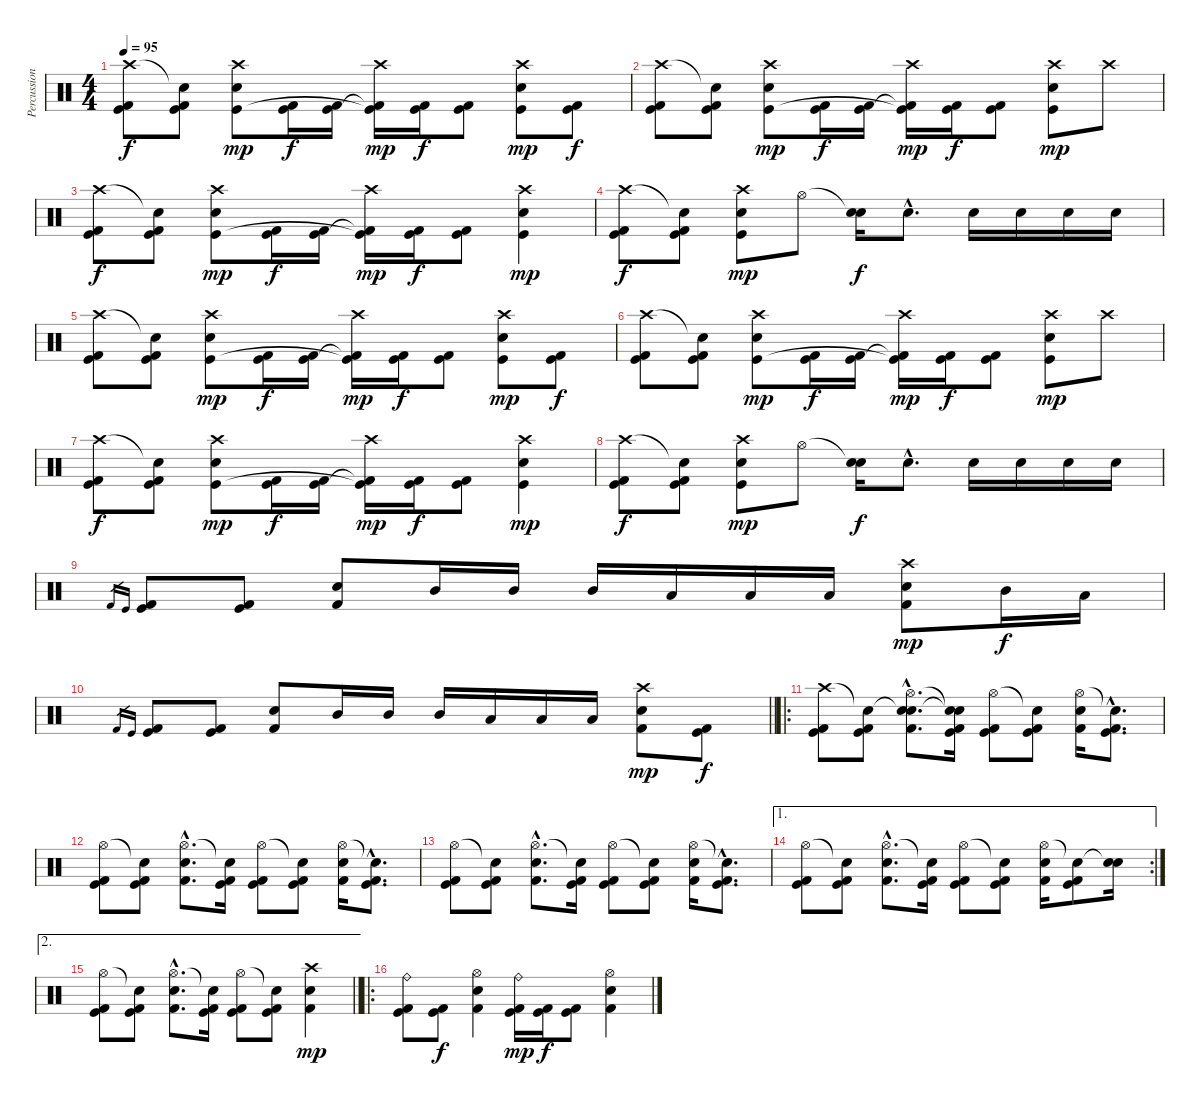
\track ("Percussion" "Percussion") {instrument percussion}
\staff {score}
\articulation defaults
\ts (4 4)
\tempo 95
\clef neutral
\ks c
("Crash high (hit)" "Kick (hit) 2" "Kick (hit)").8{dy f} ("Snare (hit)"{t} "Kick (hit) 2" "Kick (hit)").8 ("Crash high (hit)" "Snare (hit) 2" "Kick (hit)").8{dy mp} ("Kick (hit) 2" "Kick (hit)").16{dy f} ("Kick (hit) 2" "Kick (hit)").16 ("Crash high (hit)" "Kick (hit) 2"{t} "Kick (hit)"{t}).16{dy mp} ("Kick (hit) 2" "Kick (hit)").16{dy f} ("Kick (hit)" "Kick (hit) 2").8 ("Crash high (hit)" "Snare (hit) 2" "Kick (hit)").8{dy mp} ("Kick (hit)" "Kick (hit) 2").8{dy f} |
("Crash high (hit)" "Kick (hit) 2" "Kick (hit)").8 ("Snare (hit)"{t} "Kick (hit) 2" "Kick (hit)").8 ("Crash high (hit)" "Snare (hit) 2" "Kick (hit)").8{dy mp} ("Kick (hit) 2" "Kick (hit)").16{dy f} ("Kick (hit) 2" "Kick (hit)").16 ("Crash high (hit)" "Kick (hit) 2"{t} "Kick (hit)"{t}).16{dy mp} ("Kick (hit) 2" "Kick (hit)").16{dy f} ("Kick (hit)" "Kick (hit) 2").8 ("Crash high (hit)" "Snare (hit) 2" "Kick (hit)").8{dy mp} "Crash high (hit)".8 |
("Crash high (hit)" "Kick (hit) 2" "Kick (hit)").8{dy f} ("Snare (hit)"{t} "Kick (hit) 2" "Kick (hit)").8 ("Crash high (hit)" "Snare (hit) 2" "Kick (hit)").8{dy mp} ("Kick (hit) 2" "Kick (hit)").16{dy f} ("Kick (hit) 2" "Kick (hit)").16 ("Crash high (hit)" "Kick (hit) 2"{t} "Kick (hit)"{t}).16{dy mp} ("Kick (hit) 2" "Kick (hit)").16{dy f} ("Kick (hit)" "Kick (hit) 2").8 ("Crash high (hit)" "Snare (hit) 2" "Kick (hit)").4{dy mp} |
("Crash high (hit)" "Kick (hit) 2" "Kick (hit)").8{dy f} ("Snare (hit)"{t} "Kick (hit) 2" "Kick (hit)").8 ("Crash high (hit)" "Snare (hit) 2" "Kick (hit)").8{dy mp} "Hi-Hat (open)".8 ("Snare (hit)"{t} "Snare (hit) 2").16{dy f} "Snare (hit) 2"{hac}.8{d} "Snare (hit) 2".16 "Snare (hit) 2".16 "Snare (hit) 2".16 "Snare (hit) 2".16 |
("Crash high (hit)" "Kick (hit) 2" "Kick (hit)").8 ("Snare (hit)"{t} "Kick (hit) 2" "Kick (hit)").8 ("Crash high (hit)" "Snare (hit) 2" "Kick (hit)").8{dy mp} ("Kick (hit) 2" "Kick (hit)").16{dy f} ("Kick (hit) 2" "Kick (hit)").16 ("Crash high (hit)" "Kick (hit) 2"{t} "Kick (hit)"{t}).16{dy mp} ("Kick (hit) 2" "Kick (hit)").16{dy f} ("Kick (hit)" "Kick (hit) 2").8 ("Crash high (hit)" "Snare (hit) 2" "Kick (hit)").8{dy mp} ("Kick (hit)" "Kick (hit) 2").8{dy f} |
("Crash high (hit)" "Kick (hit) 2" "Kick (hit)").8 ("Snare (hit)"{t} "Kick (hit) 2" "Kick (hit)").8 ("Crash high (hit)" "Snare (hit) 2" "Kick (hit)").8{dy mp} ("Kick (hit) 2" "Kick (hit)").16{dy f} ("Kick (hit) 2" "Kick (hit)").16 ("Crash high (hit)" "Kick (hit) 2"{t} "Kick (hit)"{t}).16{dy mp} ("Kick (hit) 2" "Kick (hit)").16{dy f} ("Kick (hit)" "Kick (hit) 2").8 ("Crash high (hit)" "Snare (hit) 2" "Kick (hit)").8{dy mp} "Crash high (hit)".8 |
("Crash high (hit)" "Kick (hit) 2" "Kick (hit)").8{dy f} ("Snare (hit)"{t} "Kick (hit) 2" "Kick (hit)").8 ("Crash high (hit)" "Snare (hit) 2" "Kick (hit)").8{dy mp} ("Kick (hit) 2" "Kick (hit)").16{dy f} ("Kick (hit) 2" "Kick (hit)").16 ("Crash high (hit)" "Kick (hit) 2"{t} "Kick (hit)"{t}).16{dy mp} ("Kick (hit) 2" "Kick (hit)").16{dy f} ("Kick (hit)" "Kick (hit) 2").8 ("Crash high (hit)" "Snare (hit) 2" "Kick (hit)").4{dy mp} |
("Crash high (hit)" "Kick (hit) 2" "Kick (hit)").8{dy f} ("Snare (hit)"{t} "Kick (hit) 2" "Kick (hit)").8 ("Crash high (hit)" "Snare (hit) 2" "Kick (hit)").8{dy mp} "Hi-Hat (open)".8 ("Snare (hit)"{t} "Snare (hit) 2").16{dy f} "Snare (hit) 2"{hac}.8{d} "Snare (hit) 2".16 "Snare (hit) 2".16 "Snare (hit) 2".16 "Snare (hit) 2".16 |
"Kick (hit) 2".16{gr} "Kick (hit)".16{gr} ("Kick (hit) 2" "Kick (hit)").8 ("Kick (hit) 2" "Kick (hit)").8 ("Snare (hit) 2" "Kick (hit) 2").8 "Mid Tom (hit)".16 "Mid Tom (hit)".16 "Mid Tom (hit)".16 "Low Tom (hit)".16 "Low Tom (hit)".16 "Low Tom (hit)".16 ("Crash high (hit)" "Snare (hit) 2" "Kick (hit) 2").8{dy mp} "Mid Tom (hit)".16{dy f} "Low Tom (hit)".16 |
\barLineRight lightlight "Kick (hit) 2".16{gr} "Kick (hit)".16{gr}
("Kick (hit) 2" "Kick (hit)").8 ("Kick (hit) 2" "Kick (hit)").8 ("Snare (hit) 2" "Kick (hit) 2").8 "Mid Tom (hit)".16 "Mid Tom (hit)".16 "Mid Tom (hit)".16 "Low Tom (hit)".16 "Low Tom (hit)".16 "Low Tom (hit)".16 ("Crash high (hit)" "Snare (hit) 2" "Kick (hit) 2").8{dy mp} ("Kick (hit)" "Kick (hit) 2").8{dy f} |
\ro
("Crash high (hit)" "Kick (hit) 2" "Kick (hit)").8 ("Snare (hit)"{t} "Kick (hit) 2" "Kick (hit)").8 ("Snare (hit)"{hac t} "Hi-Hat (open)"{hac} "Snare (hit) 2"{hac} "Kick (hit) 2"{hac}).8{d} ("Snare (hit)"{t} "Snare (hit)"{t} "Kick (hit) 2" "Kick (hit)").16 ("Hi-Hat (open)" "Kick (hit) 2" "Kick (hit)").8 ("Snare (hit)"{t} "Kick (hit)" "Kick (hit) 2").8 ("Hi-Hat (open)" "Snare (hit) 2" "Kick (hit) 2").16 ("Snare (hit)"{hac t} "Kick (hit) 2"{hac} "Kick (hit)"{hac}).8{d} |
("Hi-Hat (open)" "Kick (hit) 2" "Kick (hit)").8 ("Snare (hit)"{t} "Kick (hit) 2" "Kick (hit)").8 ("Hi-Hat (open)"{hac} "Snare (hit) 2"{hac} "Kick (hit) 2"{hac}).8{d} ("Snare (hit)"{t} "Kick (hit) 2" "Kick (hit)").16 ("Hi-Hat (open)" "Kick (hit) 2" "Kick (hit)").8 ("Snare (hit)"{t} "Kick (hit)" "Kick (hit) 2").8 ("Hi-Hat (open)" "Snare (hit) 2" "Kick (hit) 2").16 ("Snare (hit)"{hac t} "Kick (hit) 2"{hac} "Kick (hit)"{hac}).8{d} |
("Hi-Hat (open)" "Kick (hit) 2" "Kick (hit)").8 ("Snare (hit)"{t} "Kick (hit) 2" "Kick (hit)").8 ("Hi-Hat (open)"{hac} "Snare (hit) 2"{hac} "Kick (hit) 2"{hac}).8{d} ("Snare (hit)"{t} "Kick (hit) 2" "Kick (hit)").16 ("Hi-Hat (open)" "Kick (hit) 2" "Kick (hit)").8 ("Snare (hit)"{t} "Kick (hit)" "Kick (hit) 2").8 ("Hi-Hat (open)" "Snare (hit) 2" "Kick (hit) 2").16 ("Snare (hit)"{hac t} "Kick (hit) 2"{hac} "Kick (hit)"{hac}).8{d} |
\ae 1
\rc 2
("Hi-Hat (open)" "Kick (hit) 2" "Kick (hit)").8 ("Snare (hit)"{t} "Kick (hit) 2" "Kick (hit)").8 ("Hi-Hat (open)"{hac} "Snare (hit) 2"{hac} "Kick (hit) 2"{hac}).8{d} ("Snare (hit)"{t} "Kick (hit) 2" "Kick (hit)").16 ("Hi-Hat (open)" "Kick (hit) 2" "Kick (hit)").8 ("Snare (hit)"{t} "Kick (hit)" "Kick (hit) 2").8 ("Hi-Hat (open)" "Snare (hit) 2" "Kick (hit) 2").16 ("Snare (hit)"{t} "Kick (hit) 2" "Kick (hit)").8 ("Snare (hit)"{t} "Snare (hit) 2").16 |
\ae 2
\barLineRight lightlight
("Hi-Hat (open)" "Kick (hit) 2" "Kick (hit)").8 ("Snare (hit)"{t} "Kick (hit) 2" "Kick (hit)").8 ("Hi-Hat (open)"{hac} "Snare (hit) 2"{hac} "Kick (hit) 2"{hac}).8{d} ("Snare (hit)"{t} "Kick (hit) 2" "Kick (hit)").16 ("Hi-Hat (open)" "Kick (hit) 2" "Kick (hit)").8 ("Snare (hit)"{t} "Kick (hit)" "Kick (hit) 2").8 ("Crash high (hit)" "Snare (hit) 2" "Kick (hit) 2").4{dy mp} |
\ro
("Ride (bell)" "Kick (hit) 2" "Kick (hit)").8 ("Kick (hit) 2" "Kick (hit)").8{dy f} ("Hi-Hat (open)" "Snare (hit) 2" "Kick (hit) 2").4 ("Ride (bell)" "Kick (hit) 2" "Kick (hit)").16{dy mp} ("Kick (hit) 2" "Kick (hit)").16{dy f} ("Kick (hit) 2" "Kick (hit)").8 ("Hi-Hat (open)" "Snare (hit) 2" "Kick (hit) 2").4
